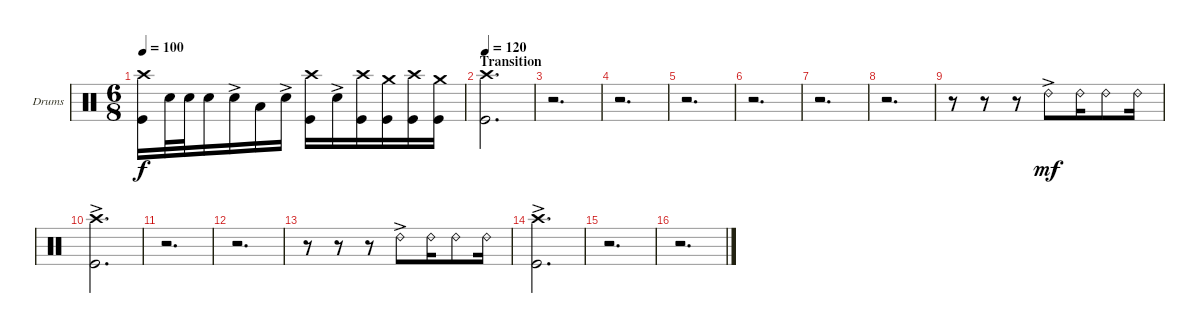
\bracketExtendMode groupsimilarinstruments
\firstSystemTrackNameOrientation horizontal
\otherSystemsTrackNameOrientation horizontal
\track ("Drumkit" "Drums") {instrument percussion}
\staff {score}
\articulation defaults
\ts (6 8)
\tempo 100
\clef neutral
\ks c
("Kick (hit)" "Crash high (hit)").16{dy f} "Snare (hit) 2".32 "Snare (hit) 2".32 "Snare (hit) 2".16 "Snare (hit) 2"{ac}.16 "Low Tom (hit)".16 "Snare (hit) 2"{ac}.16 ("Kick (hit)" "Crash high (hit)").16 "Snare (hit) 2"{ac}.16 ("Kick (hit)" "Crash high (hit)").16 ("Kick (hit)" "Crash medium (hit)").16 ("Kick (hit)" "Crash high (hit)").16 ("Kick (hit)" "Crash medium (hit)").16 |
\section ("" "Transition")
\tempo 120
("Kick (hit)" "Crash high (hit)").2{d} |
r.2{d} |
r.2{d} |
r.2{d} |
r.2{d} |
r.2{d} |
r.2{d} |
r.8 r.8 r.8 "Ride (bell) 2"{ac}.8{dy mf} "Ride (bell) 2".16 "Ride (bell) 2".8 "Ride (bell) 2".16 |
("Kick (hit)" "Crash high (hit)"{ac}).2{d} |
r.2{d} |
r.2{d} |
r.8 r.8 r.8 "Ride (bell) 2"{ac}.8 "Ride (bell) 2".16 "Ride (bell) 2".8 "Ride (bell) 2".16 |
("Kick (hit)" "Crash high (hit)"{ac}).2{d} |
r.2{d} |
r.2{d}
